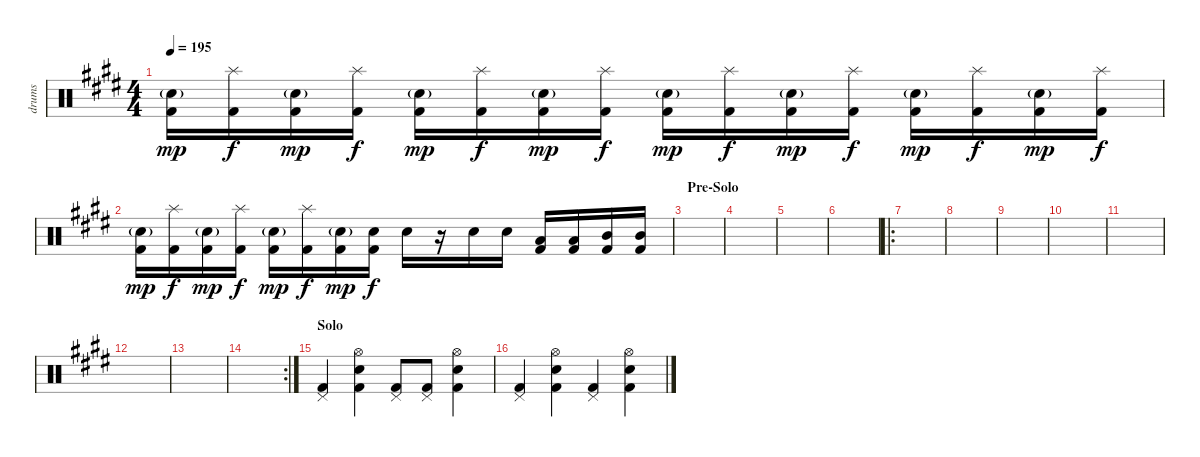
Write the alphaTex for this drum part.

\track ("drums" "drums") {instrument percussion}
\staff {score}
\articulation defaults
\ts (4 4)
\tempo 195
\clef neutral
\ks e
("Kick (hit) 2" "Electric Snare (hit)"{g}).16{dy mp} ("Kick (hit) 2" "Splash (hit)").16{dy f} ("Kick (hit) 2" "Electric Snare (hit)"{g}).16{dy mp} ("Kick (hit) 2" "Splash (hit)").16{dy f} ("Kick (hit) 2" "Electric Snare (hit)"{g}).16{dy mp} ("Kick (hit) 2" "Splash (hit)").16{dy f} ("Kick (hit) 2" "Electric Snare (hit)"{g}).16{dy mp} ("Kick (hit) 2" "Splash (hit)").16{dy f} ("Kick (hit) 2" "Electric Snare (hit)"{g}).16{dy mp} ("Kick (hit) 2" "Splash (hit)").16{dy f} ("Kick (hit) 2" "Electric Snare (hit)"{g}).16{dy mp} ("Kick (hit) 2" "Splash (hit)").16{dy f} ("Kick (hit) 2" "Electric Snare (hit)"{g}).16{dy mp} ("Kick (hit) 2" "Splash (hit)").16{dy f} ("Kick (hit) 2" "Electric Snare (hit)"{g}).16{dy mp} ("Kick (hit) 2" "Splash (hit)").16{dy f} |
("Kick (hit) 2" "Electric Snare (hit)"{g}).16{dy mp} ("Kick (hit) 2" "Splash (hit)").16{dy f} ("Kick (hit) 2" "Electric Snare (hit)"{g}).16{dy mp} ("Kick (hit) 2" "Splash (hit)").16{dy f} ("Kick (hit) 2" "Electric Snare (hit)"{g}).16{dy mp} ("Kick (hit) 2" "Splash (hit)").16{dy f} ("Kick (hit) 2" "Electric Snare (hit)"{g}).16{dy mp} ("Kick (hit) 2" "Snare (hit)").16{dy f} "Electric Snare (hit)".16 r.16 "Electric Snare (hit)".16 "Electric Snare (hit)".16 ("Low Tom (hit)" "Kick (hit) 2").16 ("Low Tom (hit)" "Kick (hit) 2").16 ("Mid Tom (hit)" "Kick (hit) 2").16 ("Mid Tom (hit)" "Kick (hit) 2").16 |
\section ("" "Pre-Solo")
|
|
|
|
\ro
|
|
|
|
|
|
|
\rc 2
|
\section ("" "Solo")
("Pedal Hi-Hat (hit)" "Kick (hit) 2").4 ("Hi-Hat (open)" "Electric Snare (hit)" "Kick (hit) 2").4 ("Pedal Hi-Hat (hit)" "Kick (hit) 2").8 ("Pedal Hi-Hat (hit)" "Kick (hit) 2").8 ("Hi-Hat (open)" "Electric Snare (hit)" "Kick (hit) 2").4 |
("Pedal Hi-Hat (hit)" "Kick (hit) 2").4 ("Hi-Hat (open)" "Electric Snare (hit)" "Kick (hit) 2").4 ("Pedal Hi-Hat (hit)" "Kick (hit) 2").4 ("Hi-Hat (open)" "Electric Snare (hit)" "Kick (hit) 2").4
